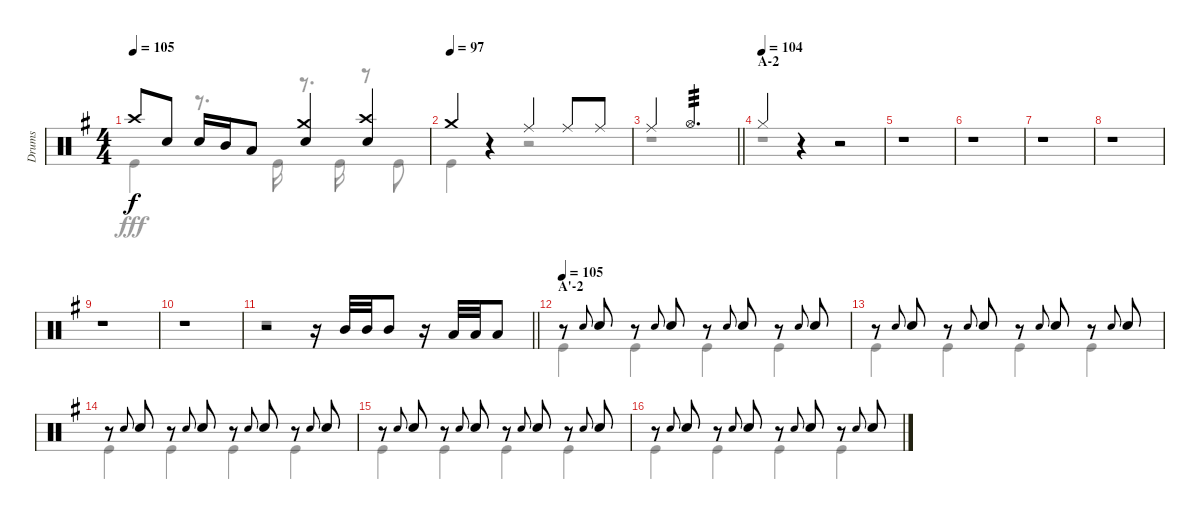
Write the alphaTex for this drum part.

\track ("Drums" "Drums") {instrument percussion}
\staff {score}
\articulation defaults
\voice
\ts (4 4)
\tempo 105
\clef neutral
\ks g "Crash high (hit)".8{dy f} "Snare (hit) 2".8 "Snare (hit) 2".16 "Mid Tom (hit)".16 "Low Tom (hit)".8
("Crash medium (hit)" "Snare (hit) 2").4 ("Crash high (hit)" "Snare (hit) 2").4 |
\tempo (97)
"Crash medium (hit)".4 r.4 "Ride (middle)".4 "Ride (middle)".8 "Ride (middle)".8 |
\barLineRight lightlight "Ride (middle)".4 "Hi-Hat (open)".2{d tp 3}
|
\section ("" "A-2")
\tempo (104)
"Hi-Hat (closed)".4 r.4 r.2 |
r.1 |
r.1 |
r.1 |
r.1 |
r.1 |
r.1 |
\barLineRight lightlight
r.2 r.16 "Mid Tom (hit)".32 "Mid Tom (hit)".32 "Mid Tom (hit)".8 r.16 "Low Tom (hit)".32 "Low Tom (hit)".32 "Low Tom (hit)".8 |
\section ("" "A'-2")
\tempo 105
r.8 "Snare (hit) 2".8{gr onbeat} "Snare (hit) 2".8 r.8 "Snare (hit) 2".8{gr onbeat} "Snare (hit) 2".8 r.8 "Snare (hit) 2".8{gr onbeat} "Snare (hit) 2".8 r.8 "Snare (hit) 2".8{gr onbeat} "Snare (hit) 2".8 |
r.8 "Snare (hit) 2".8{gr onbeat} "Snare (hit) 2".8 r.8 "Snare (hit) 2".8{gr onbeat} "Snare (hit) 2".8 r.8 "Snare (hit) 2".8{gr onbeat} "Snare (hit) 2".8 r.8 "Snare (hit) 2".8{gr onbeat} "Snare (hit) 2".8 |
r.8 "Snare (hit) 2".8{gr onbeat} "Snare (hit) 2".8 r.8 "Snare (hit) 2".8{gr onbeat} "Snare (hit) 2".8 r.8 "Snare (hit) 2".8{gr onbeat} "Snare (hit) 2".8 r.8 "Snare (hit) 2".8{gr onbeat} "Snare (hit) 2".8 |
r.8 "Snare (hit) 2".8{gr onbeat} "Snare (hit) 2".8 r.8 "Snare (hit) 2".8{gr onbeat} "Snare (hit) 2".8 r.8 "Snare (hit) 2".8{gr onbeat} "Snare (hit) 2".8 r.8 "Snare (hit) 2".8{gr onbeat} "Snare (hit) 2".8 |
r.8 "Snare (hit) 2".8{gr onbeat} "Snare (hit) 2".8 r.8 "Snare (hit) 2".8{gr onbeat} "Snare (hit) 2".8 r.8 "Snare (hit) 2".8{gr onbeat} "Snare (hit) 2".8 r.8 "Snare (hit) 2".8{gr onbeat} "Snare (hit) 2".8
\voice
\clef neutral
\ottava regular
\simile none
\ks g "Kick (hit)".4{dy fff}
r.8{d} "Kick (hit)".16 r.8{d} "Kick (hit)".16 r.8 "Kick (hit)".8 |
"Kick (hit)".4 r.4 r.2 |
\barLineRight lightlight
r.1 |
r.1 |
r.1 |
r.1 |
r.1 |
r.1 |
r.1 |
r.1 |
\barLineRight lightlight
r.1 |
"Kick (hit)".4 "Kick (hit)".4 "Kick (hit)".4 "Kick (hit)".4 |
"Kick (hit)".4 "Kick (hit)".4 "Kick (hit)".4 "Kick (hit)".4 |
"Kick (hit)".4 "Kick (hit)".4 "Kick (hit)".4 "Kick (hit)".4 |
"Kick (hit)".4 "Kick (hit)".4 "Kick (hit)".4 "Kick (hit)".4 |
"Kick (hit)".4 "Kick (hit)".4 "Kick (hit)".4 "Kick (hit)".4
